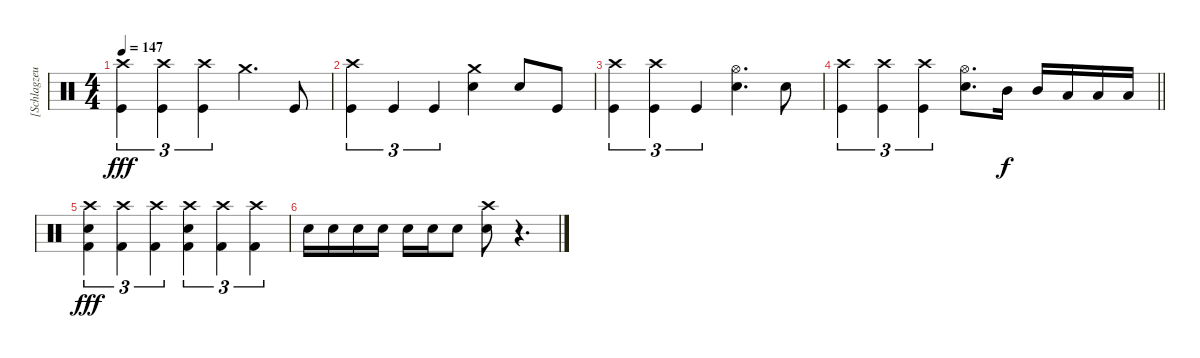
\track ("[Schlagzeug]" "[Schlagzeu") {instrument percussion}
\staff {score}
\articulation defaults
\ts (4 4)
\tempo 147
\clef neutral
\ks c
("Crash high (hit)" "Kick (hit)").4{tu (3 2) dy fff} ("Crash high (hit)" "Kick (hit)").4{tu (3 2)} ("Crash high (hit)" "Kick (hit)").4{tu (3 2)} "Crash medium (hit)".4{d} "Kick (hit)".8 |
("Crash high (hit)" "Kick (hit)").4{tu (3 2)} "Kick (hit)".4{tu (3 2)} "Kick (hit)".4{tu (3 2)} ("Crash medium (hit)" "Electric Snare (hit)").4 "Electric Snare (hit)".8 "Kick (hit)".8 |
("Crash high (hit)" "Kick (hit)").4{tu (3 2)} ("Crash high (hit)" "Kick (hit)").4{tu (3 2)} "Kick (hit)".4{tu (3 2)} ("Hi-Hat (open)" "Electric Snare (hit)").4{d} "Electric Snare (hit)".8 |
\barLineRight lightlight
("Crash high (hit)" "Kick (hit)").4{tu (3 2)} ("Crash high (hit)" "Kick (hit)").4{tu (3 2)} ("Crash high (hit)" "Kick (hit)").4{tu (3 2)} ("Hi-Hat (open)" "Electric Snare (hit)").8{d} "Mid Tom (hit)".16{dy f} "Mid Tom (hit)".16 "Low Tom (hit)".16 "Low Tom (hit)".16 "Low Floor Tom (hit)".16 |
("Crash high (hit)" "Electric Snare (hit)" "Kick (hit) 2").4{tu (3 2) dy fff} ("Crash high (hit)" "Kick (hit) 2").4{tu (3 2)} ("Crash high (hit)" "Kick (hit) 2").4{tu (3 2)} ("Crash high (hit)" "Electric Snare (hit)" "Kick (hit) 2").4{tu (3 2)} ("Crash high (hit)" "Kick (hit) 2").4{tu (3 2)} ("Crash high (hit)" "Kick (hit) 2").4{tu (3 2)} |
"Electric Snare (hit)".16 "Electric Snare (hit)".16 "Electric Snare (hit)".16 "Electric Snare (hit)".16 "Electric Snare (hit)".16 "Electric Snare (hit)".16 "Electric Snare (hit)".8 ("Crash high (hit)" "Electric Snare (hit)").8 r.4{d}
